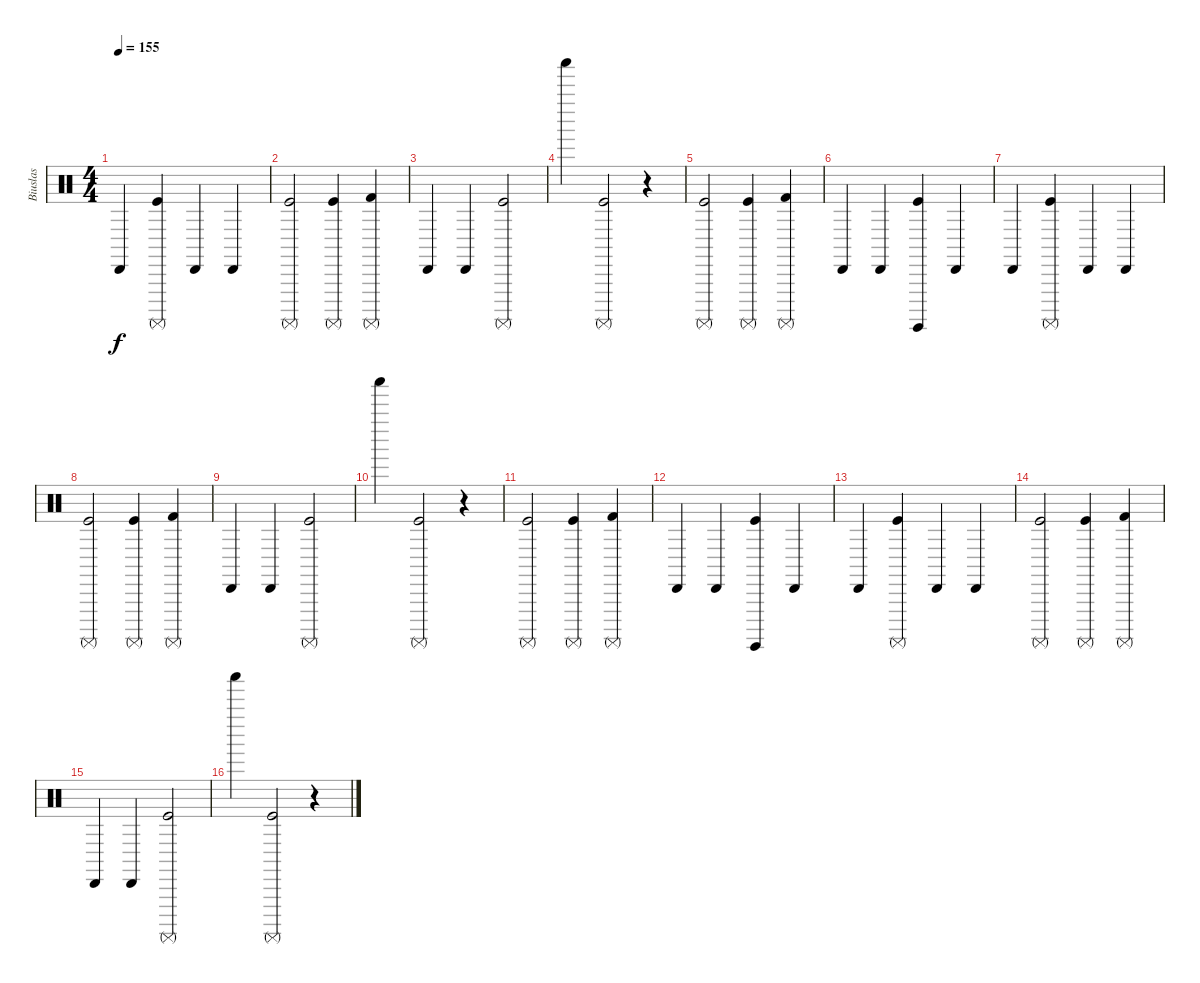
\track ("Biuslas" "Biuslas") {instrument percussion}
\staff {score}
\articulation defaults
\ts (4 4)
\tempo 155
\clef neutral
\ks c "Cabasa (hit)".4{dy f}
("Surdo (mute)" "Kick (hit)").4 "Cabasa (hit)".4 "Cabasa (hit)".4 |
("Surdo (mute)" "Kick (hit)").2 ("Surdo (mute)" "Kick (hit)").4 ("Surdo (mute)" "Kick (hit) 2").4 |
"Cabasa (hit)".4 "Cabasa (hit)".4 ("Surdo (mute)" "Kick (hit)").2 |
"Shaker (hit)".4 ("Surdo (mute)" "Kick (hit)").2 r.4 |
("Surdo (mute)" "Kick (hit)").2 ("Surdo (mute)" "Kick (hit)").4 ("Surdo (mute)" "Kick (hit) 2").4 |
"Cabasa (hit)".4 "Cabasa (hit)".4 ("Surdo (hit)" "Kick (hit)").4 "Cabasa (hit)".4 |
"Cabasa (hit)".4 ("Surdo (mute)" "Kick (hit)").4 "Cabasa (hit)".4 "Cabasa (hit)".4 |
("Surdo (mute)" "Kick (hit)").2 ("Surdo (mute)" "Kick (hit)").4 ("Surdo (mute)" "Kick (hit) 2").4 |
"Cabasa (hit)".4 "Cabasa (hit)".4 ("Surdo (mute)" "Kick (hit)").2 |
"Shaker (hit)".4 ("Surdo (mute)" "Kick (hit)").2 r.4 |
("Surdo (mute)" "Kick (hit)").2 ("Surdo (mute)" "Kick (hit)").4 ("Surdo (mute)" "Kick (hit) 2").4 |
"Cabasa (hit)".4 "Cabasa (hit)".4 ("Surdo (hit)" "Kick (hit)").4 "Cabasa (hit)".4 |
"Cabasa (hit)".4 ("Surdo (mute)" "Kick (hit)").4 "Cabasa (hit)".4 "Cabasa (hit)".4 |
("Surdo (mute)" "Kick (hit)").2 ("Surdo (mute)" "Kick (hit)").4 ("Surdo (mute)" "Kick (hit) 2").4 |
"Cabasa (hit)".4 "Cabasa (hit)".4 ("Surdo (mute)" "Kick (hit)").2 |
"Shaker (hit)".4 ("Surdo (mute)" "Kick (hit)").2 r.4
